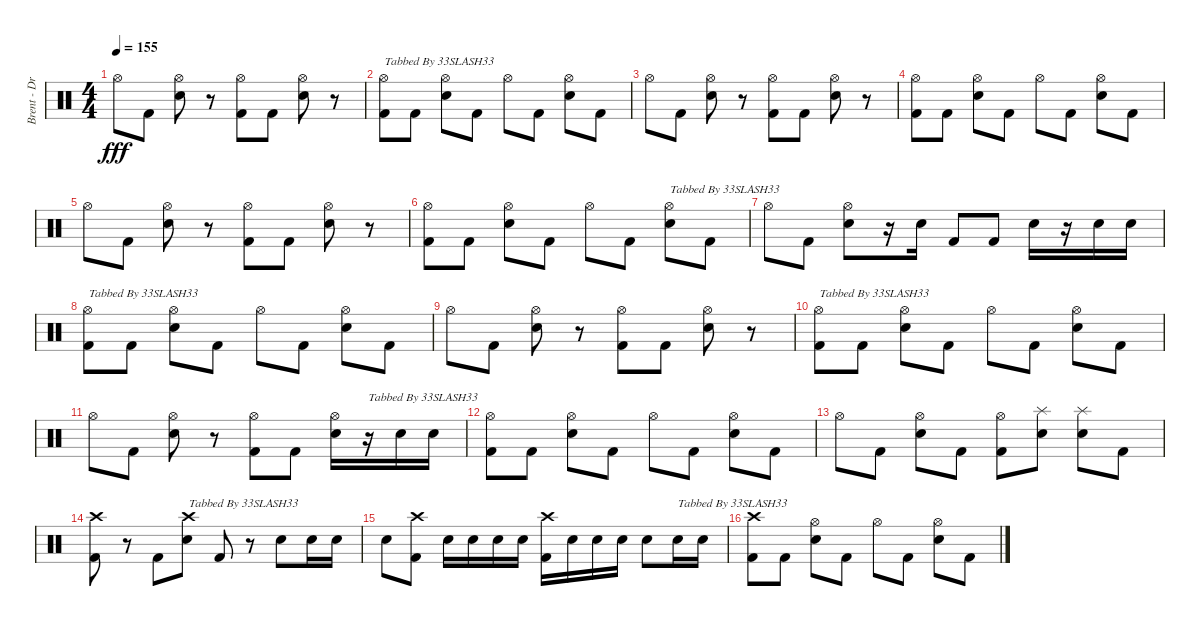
\track ("Brent - Drums" "Brent - Dr") {instrument percussion}
\staff {score}
\articulation defaults
\ts (4 4)
\tempo 155
\clef neutral
\ks c "Hi-Hat (open)".8{dy fff} "Kick (hit) 2".8
("Hi-Hat (open)" "Snare (hit) 2").8 r.8 ("Hi-Hat (open)" "Kick (hit) 2").8 "Kick (hit) 2".8 ("Hi-Hat (open)" "Snare (hit) 2").8 r.8 |
("Hi-Hat (open)" "Kick (hit) 2").8{txt "Tabbed By 33SLASH33"} "Kick (hit) 2".8 ("Hi-Hat (open)" "Snare (hit) 2").8 "Kick (hit) 2".8 "Hi-Hat (open)".8 "Kick (hit) 2".8 ("Hi-Hat (open)" "Snare (hit) 2").8 "Kick (hit) 2".8 |
"Hi-Hat (open)".8 "Kick (hit) 2".8 ("Hi-Hat (open)" "Snare (hit) 2").8 r.8 ("Hi-Hat (open)" "Kick (hit) 2").8 "Kick (hit) 2".8 ("Hi-Hat (open)" "Snare (hit) 2").8 r.8 |
("Hi-Hat (open)" "Kick (hit) 2").8 "Kick (hit) 2".8 ("Hi-Hat (open)" "Snare (hit) 2").8 "Kick (hit) 2".8 "Hi-Hat (open)".8 "Kick (hit) 2".8 ("Hi-Hat (open)" "Snare (hit) 2").8 "Kick (hit) 2".8 |
"Hi-Hat (open)".8 "Kick (hit) 2".8 ("Hi-Hat (open)" "Snare (hit) 2").8 r.8 ("Hi-Hat (open)" "Kick (hit) 2").8 "Kick (hit) 2".8 ("Hi-Hat (open)" "Snare (hit) 2").8 r.8 |
("Hi-Hat (open)" "Kick (hit) 2").8 "Kick (hit) 2".8 ("Hi-Hat (open)" "Snare (hit) 2").8 "Kick (hit) 2".8 "Hi-Hat (open)".8 "Kick (hit) 2".8 ("Hi-Hat (open)" "Snare (hit) 2").8{txt "Tabbed By 33SLASH33"} "Kick (hit) 2".8 |
"Hi-Hat (open)".8 "Kick (hit) 2".8 ("Hi-Hat (open)" "Snare (hit) 2").8 r.16 "Snare (hit) 2".16 "Kick (hit) 2".8 "Kick (hit) 2".8 "Snare (hit) 2".16 r.16 "Snare (hit) 2".16 "Snare (hit) 2".16 |
("Hi-Hat (open)" "Kick (hit) 2").8{txt "Tabbed By 33SLASH33"} "Kick (hit) 2".8 ("Hi-Hat (open)" "Snare (hit) 2").8 "Kick (hit) 2".8 "Hi-Hat (open)".8 "Kick (hit) 2".8 ("Hi-Hat (open)" "Snare (hit) 2").8 "Kick (hit) 2".8 |
"Hi-Hat (open)".8 "Kick (hit) 2".8 ("Hi-Hat (open)" "Snare (hit) 2").8 r.8 ("Hi-Hat (open)" "Kick (hit) 2").8 "Kick (hit) 2".8 ("Hi-Hat (open)" "Snare (hit) 2").8 r.8 |
("Hi-Hat (open)" "Kick (hit) 2").8{txt "Tabbed By 33SLASH33"} "Kick (hit) 2".8 ("Hi-Hat (open)" "Snare (hit) 2").8 "Kick (hit) 2".8 "Hi-Hat (open)".8 "Kick (hit) 2".8 ("Hi-Hat (open)" "Snare (hit) 2").8 "Kick (hit) 2".8 |
"Hi-Hat (open)".8 "Kick (hit) 2".8 ("Hi-Hat (open)" "Snare (hit) 2").8 r.8 ("Hi-Hat (open)" "Kick (hit) 2").8 "Kick (hit) 2".8 ("Hi-Hat (open)" "Snare (hit) 2").16 r.16{txt "Tabbed By 33SLASH33"} "Snare (hit) 2".16 "Snare (hit) 2".16 |
("Hi-Hat (open)" "Kick (hit) 2").8 "Kick (hit) 2".8 ("Hi-Hat (open)" "Snare (hit) 2").8 "Kick (hit) 2".8 "Hi-Hat (open)".8 "Kick (hit) 2".8 ("Hi-Hat (open)" "Snare (hit) 2").8 "Kick (hit) 2".8 |
"Hi-Hat (open)".8 "Kick (hit) 2".8 ("Hi-Hat (open)" "Snare (hit) 2").8 "Kick (hit) 2".8 ("Hi-Hat (open)" "Kick (hit) 2").8 ("Splash (hit)" "Snare (hit) 2").8 ("Splash (hit)" "Snare (hit) 2").8 "Kick (hit) 2".8 |
("Crash high (hit)" "Kick (hit) 2").8 r.8 "Kick (hit) 2".8 ("Crash high (hit)" "Snare (hit) 2").8{txt "Tabbed By 33SLASH33"} "Kick (hit) 2".8 r.8 "Snare (hit) 2".8 "Snare (hit) 2".16 "Snare (hit) 2".16 |
"Snare (hit) 2".8 ("Crash high (hit)" "Kick (hit) 2").8 "Snare (hit) 2".16 "Snare (hit) 2".16 "Snare (hit) 2".16 "Snare (hit) 2".16 ("Crash high (hit)" "Kick (hit) 2").16 "Snare (hit) 2".16 "Snare (hit) 2".16 "Snare (hit) 2".16 "Snare (hit) 2".8 "Snare (hit) 2".16{txt "Tabbed By 33SLASH33"} "Snare (hit) 2".16 |
("Crash high (hit)" "Kick (hit) 2").8 "Kick (hit) 2".8 ("Hi-Hat (open)" "Snare (hit) 2").8 "Kick (hit) 2".8 "Hi-Hat (open)".8 "Kick (hit) 2".8 ("Hi-Hat (open)" "Snare (hit) 2").8 "Kick (hit) 2".8
